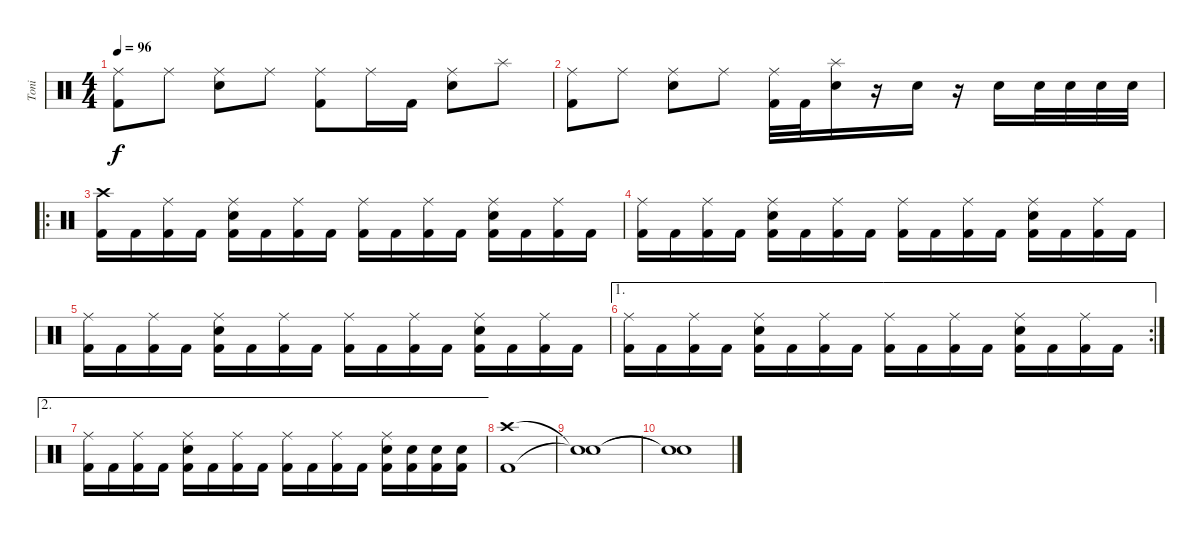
\track ("Toni" "Toni") {instrument percussion}
\staff {score}
\articulation defaults
\ts (4 4)
\tempo 96
\clef neutral
\ks c
("Ride (middle)" "Kick (hit) 2").8{dy f} "Ride (middle)".8 ("Ride (middle)" "Electric Snare (hit)").8 "Ride (middle)".8 ("Ride (middle)" "Kick (hit) 2").8 "Ride (middle)".16 "Kick (hit) 2".16 ("Ride (middle)" "Electric Snare (hit)").8 "Splash (hit)".8 |
("Ride (middle)" "Kick (hit) 2").8 "Ride (middle)".8 ("Ride (middle)" "Electric Snare (hit)").8 "Ride (middle)".8 ("Ride (middle)" "Kick (hit) 2").32 "Kick (hit) 2".32 ("Splash (hit)" "Electric Snare (hit)").16 r.16 "Electric Snare (hit)".16 r.16 "Electric Snare (hit)".16 "Electric Snare (hit)".32 "Electric Snare (hit)".32 "Electric Snare (hit)".32 "Electric Snare (hit)".32 |
\ro
("Crash high (hit)" "Kick (hit) 2").16 "Kick (hit) 2".16 ("Ride (middle)" "Kick (hit) 2").16 "Kick (hit) 2".16 ("Ride (middle)" "Electric Snare (hit)" "Kick (hit) 2").16 "Kick (hit) 2".16 ("Ride (middle)" "Kick (hit) 2").16 "Kick (hit) 2".16 ("Ride (middle)" "Kick (hit) 2").16 "Kick (hit) 2".16 ("Ride (middle)" "Kick (hit) 2").16 "Kick (hit) 2".16 ("Ride (middle)" "Electric Snare (hit)" "Kick (hit) 2").16 "Kick (hit) 2".16 ("Ride (middle)" "Kick (hit) 2").16 "Kick (hit) 2".16 |
("Ride (middle)" "Kick (hit) 2").16 "Kick (hit) 2".16 ("Ride (middle)" "Kick (hit) 2").16 "Kick (hit) 2".16 ("Ride (middle)" "Electric Snare (hit)" "Kick (hit) 2").16 "Kick (hit) 2".16 ("Ride (middle)" "Kick (hit) 2").16 "Kick (hit) 2".16 ("Ride (middle)" "Kick (hit) 2").16 "Kick (hit) 2".16 ("Ride (middle)" "Kick (hit) 2").16 "Kick (hit) 2".16 ("Ride (middle)" "Electric Snare (hit)" "Kick (hit) 2").16 "Kick (hit) 2".16 ("Ride (middle)" "Kick (hit) 2").16 "Kick (hit) 2".16 |
("Ride (middle)" "Kick (hit) 2").16 "Kick (hit) 2".16 ("Ride (middle)" "Kick (hit) 2").16 "Kick (hit) 2".16 ("Ride (middle)" "Electric Snare (hit)" "Kick (hit) 2").16 "Kick (hit) 2".16 ("Ride (middle)" "Kick (hit) 2").16 "Kick (hit) 2".16 ("Ride (middle)" "Kick (hit) 2").16 "Kick (hit) 2".16 ("Ride (middle)" "Kick (hit) 2").16 "Kick (hit) 2".16 ("Ride (middle)" "Electric Snare (hit)" "Kick (hit) 2").16 "Kick (hit) 2".16 ("Ride (middle)" "Kick (hit) 2").16 "Kick (hit) 2".16 |
\ae 1
\rc 2
("Ride (middle)" "Kick (hit) 2").16 "Kick (hit) 2".16 ("Ride (middle)" "Kick (hit) 2").16 "Kick (hit) 2".16 ("Ride (middle)" "Electric Snare (hit)" "Kick (hit) 2").16 "Kick (hit) 2".16 ("Ride (middle)" "Kick (hit) 2").16 "Kick (hit) 2".16 ("Ride (middle)" "Kick (hit) 2").16 "Kick (hit) 2".16 ("Ride (middle)" "Kick (hit) 2").16 "Kick (hit) 2".16 ("Ride (middle)" "Electric Snare (hit)" "Kick (hit) 2").16 "Kick (hit) 2".16 ("Ride (middle)" "Kick (hit) 2").16 "Kick (hit) 2".16 |
\ae 2
("Ride (middle)" "Kick (hit) 2").16 "Kick (hit) 2".16 ("Ride (middle)" "Kick (hit) 2").16 "Kick (hit) 2".16 ("Ride (middle)" "Electric Snare (hit)" "Kick (hit) 2").16 "Kick (hit) 2".16 ("Ride (middle)" "Kick (hit) 2").16 "Kick (hit) 2".16 ("Ride (middle)" "Kick (hit) 2").16 "Kick (hit) 2".16 ("Ride (middle)" "Kick (hit) 2").16 "Kick (hit) 2".16 ("Ride (middle)" "Electric Snare (hit)" "Kick (hit) 2").16 ("Electric Snare (hit)" "Kick (hit) 2").16 ("Electric Snare (hit)" "Kick (hit) 2").16 ("Electric Snare (hit)" "Kick (hit) 2").16 |
("Crash high (hit)" "Kick (hit) 2").1 |
("Snare (hit)"{t} "Snare (hit)"{t}).1 |
("Snare (hit)"{t} "Snare (hit)"{t}).1
